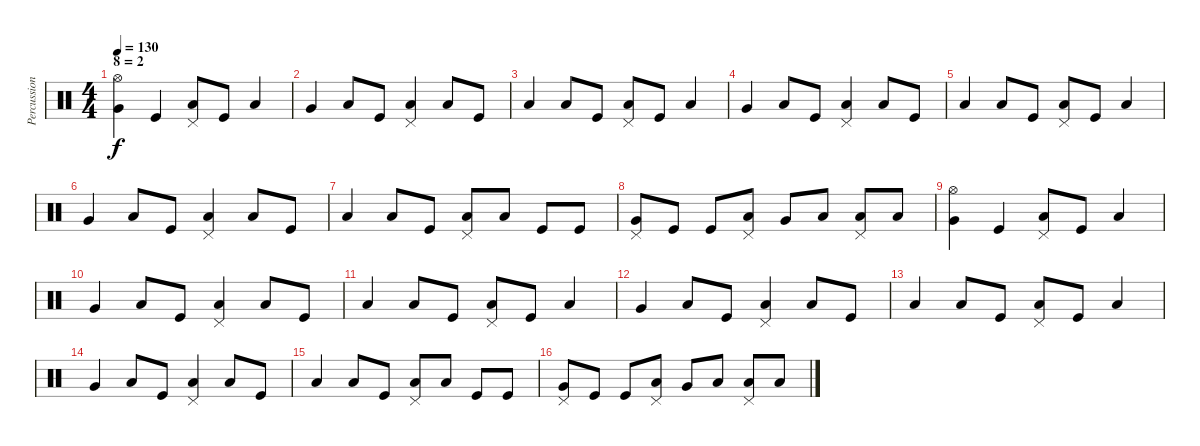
\track ("Percussioni" "Percussion") {instrument percussion}
\staff {score}
\articulation defaults
\ts (4 4)
\section ("" "8 = 2")
\tempo 130
\clef neutral
\ks c
("Hi-Hat (open)" "Very Low Tom (hit)").4{dy f} "Kick (hit)".4 ("Low Floor Tom (hit)" "Pedal Hi-Hat (hit)").8 "Kick (hit)".8 "Low Floor Tom (hit)".4 |
"Very Low Tom (hit)".4 "Low Floor Tom (hit)".8 "Kick (hit)".8 ("Low Floor Tom (hit)" "Pedal Hi-Hat (hit)").4 "Low Floor Tom (hit)".8 "Kick (hit)".8 |
"Low Floor Tom (hit)".4 "Low Floor Tom (hit)".8 "Kick (hit)".8 ("Low Floor Tom (hit)" "Pedal Hi-Hat (hit)").8 "Kick (hit)".8 "Low Floor Tom (hit)".4 |
"Very Low Tom (hit)".4 "Low Floor Tom (hit)".8 "Kick (hit)".8 ("Low Floor Tom (hit)" "Pedal Hi-Hat (hit)").4 "Low Floor Tom (hit)".8 "Kick (hit)".8 |
"Low Floor Tom (hit)".4 "Low Floor Tom (hit)".8 "Kick (hit)".8 ("Low Floor Tom (hit)" "Pedal Hi-Hat (hit)").8 "Kick (hit)".8 "Low Floor Tom (hit)".4 |
"Very Low Tom (hit)".4 "Low Floor Tom (hit)".8 "Kick (hit)".8 ("Low Floor Tom (hit)" "Pedal Hi-Hat (hit)").4 "Low Floor Tom (hit)".8 "Kick (hit)".8 |
"Low Floor Tom (hit)".4 "Low Floor Tom (hit)".8 "Kick (hit)".8 ("Low Floor Tom (hit)" "Pedal Hi-Hat (hit)").8 "Low Floor Tom (hit)".8 "Kick (hit)".8 "Kick (hit)".8 |
("Very Low Tom (hit)" "Pedal Hi-Hat (hit)").8 "Kick (hit)".8 "Kick (hit)".8 ("Low Floor Tom (hit)" "Pedal Hi-Hat (hit)").8 "Very Low Tom (hit)".8 "Low Floor Tom (hit)".8 ("Low Floor Tom (hit)" "Pedal Hi-Hat (hit)").8 "Low Floor Tom (hit)".8 |
("Hi-Hat (open)" "Very Low Tom (hit)").4 "Kick (hit)".4 ("Low Floor Tom (hit)" "Pedal Hi-Hat (hit)").8 "Kick (hit)".8 "Low Floor Tom (hit)".4 |
"Very Low Tom (hit)".4 "Low Floor Tom (hit)".8 "Kick (hit)".8 ("Low Floor Tom (hit)" "Pedal Hi-Hat (hit)").4 "Low Floor Tom (hit)".8 "Kick (hit)".8 |
"Low Floor Tom (hit)".4 "Low Floor Tom (hit)".8 "Kick (hit)".8 ("Low Floor Tom (hit)" "Pedal Hi-Hat (hit)").8 "Kick (hit)".8 "Low Floor Tom (hit)".4 |
"Very Low Tom (hit)".4 "Low Floor Tom (hit)".8 "Kick (hit)".8 ("Low Floor Tom (hit)" "Pedal Hi-Hat (hit)").4 "Low Floor Tom (hit)".8 "Kick (hit)".8 |
"Low Floor Tom (hit)".4 "Low Floor Tom (hit)".8 "Kick (hit)".8 ("Low Floor Tom (hit)" "Pedal Hi-Hat (hit)").8 "Kick (hit)".8 "Low Floor Tom (hit)".4 |
"Very Low Tom (hit)".4 "Low Floor Tom (hit)".8 "Kick (hit)".8 ("Low Floor Tom (hit)" "Pedal Hi-Hat (hit)").4 "Low Floor Tom (hit)".8 "Kick (hit)".8 |
"Low Floor Tom (hit)".4 "Low Floor Tom (hit)".8 "Kick (hit)".8 ("Low Floor Tom (hit)" "Pedal Hi-Hat (hit)").8 "Low Floor Tom (hit)".8 "Kick (hit)".8 "Kick (hit)".8 |
("Very Low Tom (hit)" "Pedal Hi-Hat (hit)").8 "Kick (hit)".8 "Kick (hit)".8 ("Low Floor Tom (hit)" "Pedal Hi-Hat (hit)").8 "Very Low Tom (hit)".8 "Low Floor Tom (hit)".8 ("Low Floor Tom (hit)" "Pedal Hi-Hat (hit)").8 "Low Floor Tom (hit)".8
